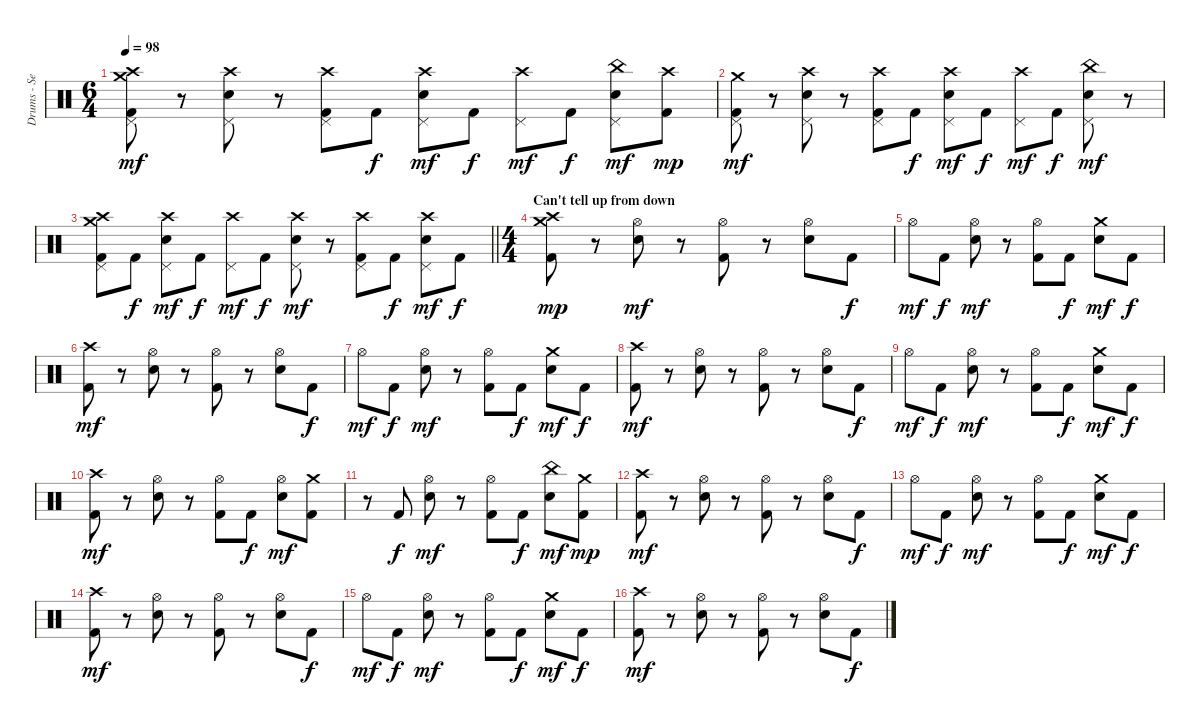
\track ("Drums - Sean Kinney" "Drums - Se") {instrument percussion}
\staff {score}
\articulation defaults
\ts (6 4)
\tempo 98
\clef neutral
\ks c
("Crash medium (hit)" "Crash high (hit)" "Pedal Hi-Hat (hit)" "Kick (hit) 2").8{dy mf} r.8 ("Crash high (hit)" "Pedal Hi-Hat (hit)" "Snare (hit) 2").8 r.8 ("Crash high (hit)" "Pedal Hi-Hat (hit)" "Kick (hit) 2").8 "Kick (hit) 2".8{dy f} ("Crash high (hit)" "Pedal Hi-Hat (hit)" "Snare (hit) 2").8{dy mf} "Kick (hit) 2".8{dy f} ("Crash high (hit)" "Pedal Hi-Hat (hit)").8{dy mf} "Kick (hit) 2".8{dy f} ("China (hit)" "Pedal Hi-Hat (hit)" "Snare (hit) 2").8{dy mf} ("Crash high (hit)" "Kick (hit) 2").8{dy mp} |
("Crash medium (hit)" "Pedal Hi-Hat (hit)" "Kick (hit) 2").8{dy mf} r.8 ("Crash high (hit)" "Pedal Hi-Hat (hit)" "Snare (hit) 2").8 r.8 ("Crash high (hit)" "Pedal Hi-Hat (hit)" "Kick (hit) 2").8 "Kick (hit) 2".8{dy f} ("Crash high (hit)" "Pedal Hi-Hat (hit)" "Snare (hit) 2").8{dy mf} "Kick (hit) 2".8{dy f} ("Crash high (hit)" "Pedal Hi-Hat (hit)").8{dy mf} "Kick (hit) 2".8{dy f} ("China (hit)" "Pedal Hi-Hat (hit)" "Snare (hit) 2").8{dy mf} r.8 |
\barLineRight lightlight
("Crash medium (hit)" "Crash high (hit)" "Pedal Hi-Hat (hit)" "Kick (hit) 2").8 "Kick (hit) 2".8{dy f} ("Crash high (hit)" "Pedal Hi-Hat (hit)" "Snare (hit) 2").8{dy mf} "Kick (hit) 2".8{dy f} ("Crash high (hit)" "Pedal Hi-Hat (hit)").8{dy mf} "Kick (hit) 2".8{dy f} ("Crash high (hit)" "Pedal Hi-Hat (hit)" "Snare (hit) 2").8{dy mf} r.8 ("Crash high (hit)" "Pedal Hi-Hat (hit)" "Kick (hit) 2").8 "Kick (hit) 2".8{dy f} ("Crash high (hit)" "Pedal Hi-Hat (hit)" "Snare (hit) 2").8{dy mf} "Kick (hit) 2".8{dy f} |
\ts (4 4)
\section ("" "Can't tell up from down")
("Crash medium (hit)" "Crash high (hit)" "Kick (hit) 2").8{dy mp} r.8 ("Hi-Hat (open)" "Snare (hit) 2").8{dy mf} r.8 ("Hi-Hat (open)" "Kick (hit) 2").8 r.8 ("Hi-Hat (open)" "Snare (hit) 2").8 "Kick (hit) 2".8{dy f} |
"Hi-Hat (open)".8{dy mf} "Kick (hit) 2".8{dy f} ("Hi-Hat (open)" "Snare (hit) 2").8{dy mf} r.8 ("Hi-Hat (open)" "Kick (hit) 2").8 "Kick (hit) 2".8{dy f} ("Crash medium (hit)" "Snare (hit) 2").8{dy mf} "Kick (hit) 2".8{dy f} |
("Crash high (hit)" "Kick (hit) 2").8{dy mf} r.8 ("Hi-Hat (open)" "Snare (hit) 2").8 r.8 ("Hi-Hat (open)" "Kick (hit) 2").8 r.8 ("Hi-Hat (open)" "Snare (hit) 2").8 "Kick (hit) 2".8{dy f} |
"Hi-Hat (open)".8{dy mf} "Kick (hit) 2".8{dy f} ("Hi-Hat (open)" "Snare (hit) 2").8{dy mf} r.8 ("Hi-Hat (open)" "Kick (hit) 2").8 "Kick (hit) 2".8{dy f} ("Crash medium (hit)" "Snare (hit) 2").8{dy mf} "Kick (hit) 2".8{dy f} |
("Crash high (hit)" "Kick (hit) 2").8{dy mf} r.8 ("Hi-Hat (open)" "Snare (hit) 2").8 r.8 ("Hi-Hat (open)" "Kick (hit) 2").8 r.8 ("Hi-Hat (open)" "Snare (hit) 2").8 "Kick (hit) 2".8{dy f} |
"Hi-Hat (open)".8{dy mf} "Kick (hit) 2".8{dy f} ("Hi-Hat (open)" "Snare (hit) 2").8{dy mf} r.8 ("Hi-Hat (open)" "Kick (hit) 2").8 "Kick (hit) 2".8{dy f} ("Crash medium (hit)" "Snare (hit) 2").8{dy mf} "Kick (hit) 2".8{dy f} |
("Crash high (hit)" "Kick (hit) 2").8{dy mf} r.8 ("Hi-Hat (open)" "Snare (hit) 2").8 r.8 ("Hi-Hat (open)" "Kick (hit) 2").8 "Kick (hit) 2".8{dy f} ("Hi-Hat (open)" "Snare (hit) 2").8{dy mf} ("Crash medium (hit)" "Kick (hit) 2").8 |
r.8 "Kick (hit) 2".8{dy f} ("Hi-Hat (open)" "Snare (hit) 2").8{dy mf} r.8 ("Hi-Hat (open)" "Kick (hit) 2").8 "Kick (hit) 2".8{dy f} ("China (hit)" "Snare (hit) 2").8{dy mf} ("Crash medium (hit)" "Kick (hit) 2").8{dy mp} |
("Crash high (hit)" "Kick (hit) 2").8{dy mf} r.8 ("Hi-Hat (open)" "Snare (hit) 2").8 r.8 ("Hi-Hat (open)" "Kick (hit) 2").8 r.8 ("Hi-Hat (open)" "Snare (hit) 2").8 "Kick (hit) 2".8{dy f} |
"Hi-Hat (open)".8{dy mf} "Kick (hit) 2".8{dy f} ("Hi-Hat (open)" "Snare (hit) 2").8{dy mf} r.8 ("Hi-Hat (open)" "Kick (hit) 2").8 "Kick (hit) 2".8{dy f} ("Crash medium (hit)" "Snare (hit) 2").8{dy mf} "Kick (hit) 2".8{dy f} |
("Crash high (hit)" "Kick (hit) 2").8{dy mf} r.8 ("Hi-Hat (open)" "Snare (hit) 2").8 r.8 ("Hi-Hat (open)" "Kick (hit) 2").8 r.8 ("Hi-Hat (open)" "Snare (hit) 2").8 "Kick (hit) 2".8{dy f} |
"Hi-Hat (open)".8{dy mf} "Kick (hit) 2".8{dy f} ("Hi-Hat (open)" "Snare (hit) 2").8{dy mf} r.8 ("Hi-Hat (open)" "Kick (hit) 2").8 "Kick (hit) 2".8{dy f} ("Crash medium (hit)" "Snare (hit) 2").8{dy mf} "Kick (hit) 2".8{dy f} |
("Crash high (hit)" "Kick (hit) 2").8{dy mf} r.8 ("Hi-Hat (open)" "Snare (hit) 2").8 r.8 ("Hi-Hat (open)" "Kick (hit) 2").8 r.8 ("Hi-Hat (open)" "Snare (hit) 2").8 "Kick (hit) 2".8{dy f}
